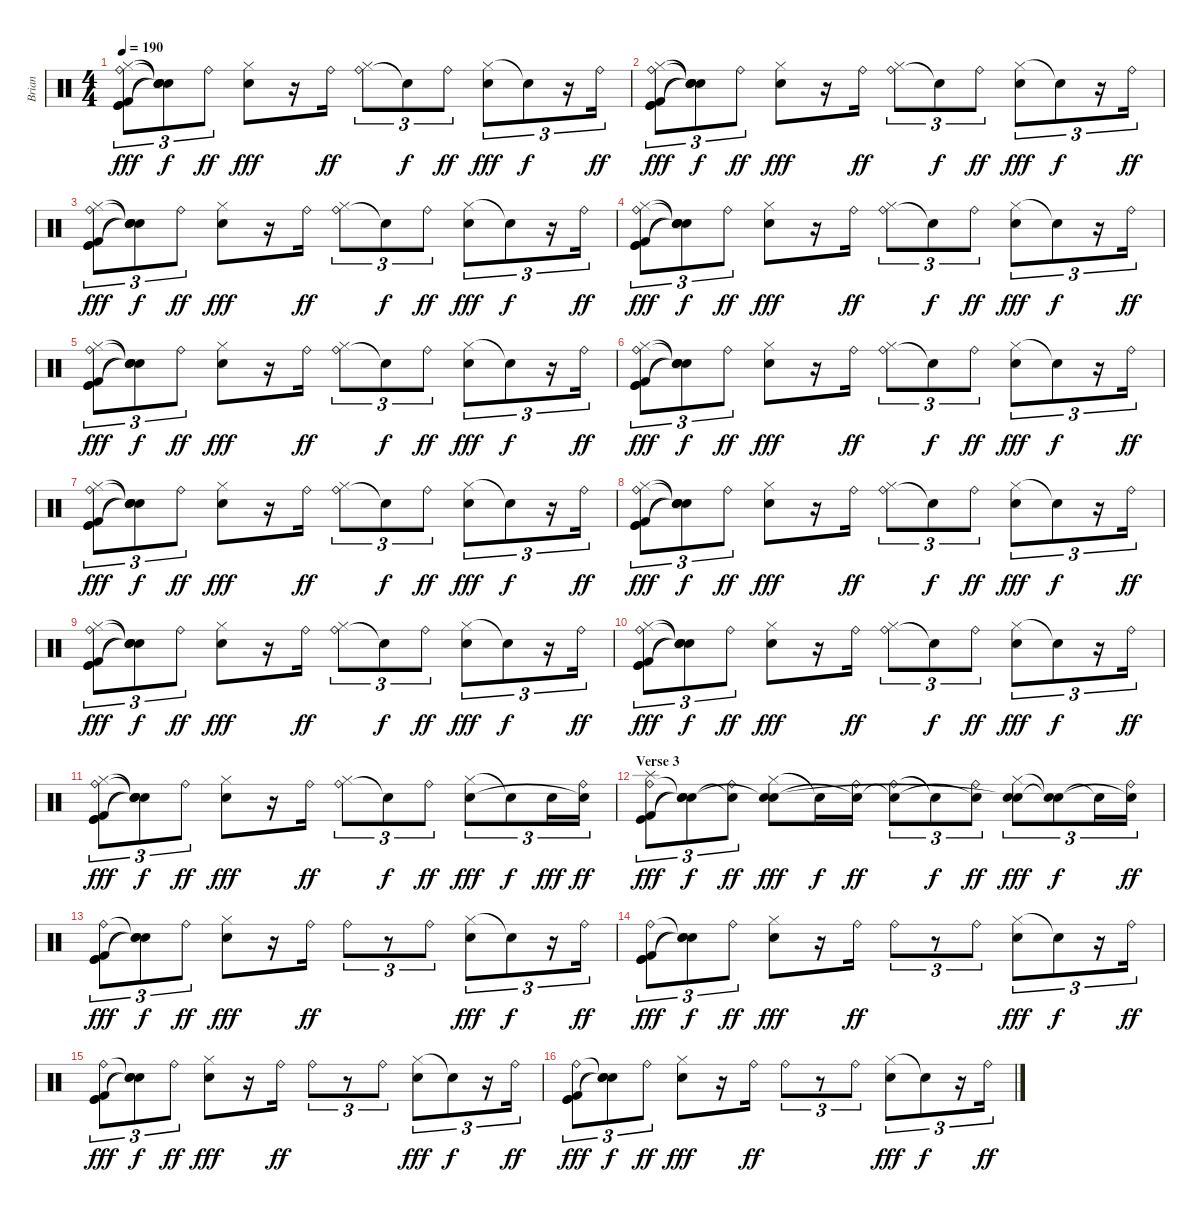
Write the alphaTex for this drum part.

\track ("Brian" "Brian") {instrument percussion}
\staff {score}
\articulation defaults
\ts (4 4)
\tempo 190
\clef neutral
\ks c
("Ride (bell)" "Hi-Hat (closed)" "Kick (hit)" "Kick (hit) 2" "Kick (hit)").8{tu (3 2) dy fff} ("Snare (hit)"{t} "Snare (hit)"{t} "Snare (hit)"{t} "Snare (hit)"{t}).8{tu (3 2) dy f} "Ride (bell)".8{tu (3 2) dy ff} ("Hi-Hat (closed)" "Electric Snare (hit)").8{dy fff} r.16 "Ride (bell)".16{dy ff} ("Ride (bell)" "Hi-Hat (closed)").8{tu (3 2)} "Snare (hit)"{t}.8{tu (3 2) dy f} "Ride (bell)".8{tu (3 2) dy ff} ("Hi-Hat (closed)" "Electric Snare (hit)").8{tu (3 2) dy fff} "Snare (hit)"{t}.8{tu (3 2) dy f} r.16{tu (3 2)} "Ride (bell)".16{tu (3 2) dy ff} |
("Ride (bell)" "Hi-Hat (closed)" "Kick (hit)" "Kick (hit) 2" "Kick (hit)").8{tu (3 2) dy fff} ("Snare (hit)"{t} "Snare (hit)"{t} "Snare (hit)"{t} "Snare (hit)"{t}).8{tu (3 2) dy f} "Ride (bell)".8{tu (3 2) dy ff} ("Hi-Hat (closed)" "Electric Snare (hit)").8{dy fff} r.16 "Ride (bell)".16{dy ff} ("Ride (bell)" "Hi-Hat (closed)").8{tu (3 2)} "Snare (hit)"{t}.8{tu (3 2) dy f} "Ride (bell)".8{tu (3 2) dy ff} ("Hi-Hat (closed)" "Electric Snare (hit)").8{tu (3 2) dy fff} "Snare (hit)"{t}.8{tu (3 2) dy f} r.16{tu (3 2)} "Ride (bell)".16{tu (3 2) dy ff} |
("Ride (bell)" "Hi-Hat (closed)" "Kick (hit)" "Kick (hit) 2" "Kick (hit)").8{tu (3 2) dy fff} ("Snare (hit)"{t} "Snare (hit)"{t} "Snare (hit)"{t} "Snare (hit)"{t}).8{tu (3 2) dy f} "Ride (bell)".8{tu (3 2) dy ff} ("Hi-Hat (closed)" "Electric Snare (hit)").8{dy fff} r.16 "Ride (bell)".16{dy ff} ("Ride (bell)" "Hi-Hat (closed)").8{tu (3 2)} "Snare (hit)"{t}.8{tu (3 2) dy f} "Ride (bell)".8{tu (3 2) dy ff} ("Hi-Hat (closed)" "Electric Snare (hit)").8{tu (3 2) dy fff} "Snare (hit)"{t}.8{tu (3 2) dy f} r.16{tu (3 2)} "Ride (bell)".16{tu (3 2) dy ff} |
("Ride (bell)" "Hi-Hat (closed)" "Kick (hit)" "Kick (hit) 2" "Kick (hit)").8{tu (3 2) dy fff} ("Snare (hit)"{t} "Snare (hit)"{t} "Snare (hit)"{t} "Snare (hit)"{t}).8{tu (3 2) dy f} "Ride (bell)".8{tu (3 2) dy ff} ("Hi-Hat (closed)" "Electric Snare (hit)").8{dy fff} r.16 "Ride (bell)".16{dy ff} ("Ride (bell)" "Hi-Hat (closed)").8{tu (3 2)} "Snare (hit)"{t}.8{tu (3 2) dy f} "Ride (bell)".8{tu (3 2) dy ff} ("Hi-Hat (closed)" "Electric Snare (hit)").8{tu (3 2) dy fff} "Snare (hit)"{t}.8{tu (3 2) dy f} r.16{tu (3 2)} "Ride (bell)".16{tu (3 2) dy ff} |
("Ride (bell)" "Hi-Hat (closed)" "Kick (hit)" "Kick (hit) 2" "Kick (hit)").8{tu (3 2) dy fff} ("Snare (hit)"{t} "Snare (hit)"{t} "Snare (hit)"{t} "Snare (hit)"{t}).8{tu (3 2) dy f} "Ride (bell)".8{tu (3 2) dy ff} ("Hi-Hat (closed)" "Electric Snare (hit)").8{dy fff} r.16 "Ride (bell)".16{dy ff} ("Ride (bell)" "Hi-Hat (closed)").8{tu (3 2)} "Snare (hit)"{t}.8{tu (3 2) dy f} "Ride (bell)".8{tu (3 2) dy ff} ("Hi-Hat (closed)" "Electric Snare (hit)").8{tu (3 2) dy fff} "Snare (hit)"{t}.8{tu (3 2) dy f} r.16{tu (3 2)} "Ride (bell)".16{tu (3 2) dy ff} |
("Ride (bell)" "Hi-Hat (closed)" "Kick (hit)" "Kick (hit) 2" "Kick (hit)").8{tu (3 2) dy fff} ("Snare (hit)"{t} "Snare (hit)"{t} "Snare (hit)"{t} "Snare (hit)"{t}).8{tu (3 2) dy f} "Ride (bell)".8{tu (3 2) dy ff} ("Hi-Hat (closed)" "Electric Snare (hit)").8{dy fff} r.16 "Ride (bell)".16{dy ff} ("Ride (bell)" "Hi-Hat (closed)").8{tu (3 2)} "Snare (hit)"{t}.8{tu (3 2) dy f} "Ride (bell)".8{tu (3 2) dy ff} ("Hi-Hat (closed)" "Electric Snare (hit)").8{tu (3 2) dy fff} "Snare (hit)"{t}.8{tu (3 2) dy f} r.16{tu (3 2)} "Ride (bell)".16{tu (3 2) dy ff} |
("Ride (bell)" "Hi-Hat (closed)" "Kick (hit)" "Kick (hit) 2" "Kick (hit)").8{tu (3 2) dy fff} ("Snare (hit)"{t} "Snare (hit)"{t} "Snare (hit)"{t} "Snare (hit)"{t}).8{tu (3 2) dy f} "Ride (bell)".8{tu (3 2) dy ff} ("Hi-Hat (closed)" "Electric Snare (hit)").8{dy fff} r.16 "Ride (bell)".16{dy ff} ("Ride (bell)" "Hi-Hat (closed)").8{tu (3 2)} "Snare (hit)"{t}.8{tu (3 2) dy f} "Ride (bell)".8{tu (3 2) dy ff} ("Hi-Hat (closed)" "Electric Snare (hit)").8{tu (3 2) dy fff} "Snare (hit)"{t}.8{tu (3 2) dy f} r.16{tu (3 2)} "Ride (bell)".16{tu (3 2) dy ff} |
("Ride (bell)" "Hi-Hat (closed)" "Kick (hit)" "Kick (hit) 2" "Kick (hit)").8{tu (3 2) dy fff} ("Snare (hit)"{t} "Snare (hit)"{t} "Snare (hit)"{t} "Snare (hit)"{t}).8{tu (3 2) dy f} "Ride (bell)".8{tu (3 2) dy ff} ("Hi-Hat (closed)" "Electric Snare (hit)").8{dy fff} r.16 "Ride (bell)".16{dy ff} ("Ride (bell)" "Hi-Hat (closed)").8{tu (3 2)} "Snare (hit)"{t}.8{tu (3 2) dy f} "Ride (bell)".8{tu (3 2) dy ff} ("Hi-Hat (closed)" "Electric Snare (hit)").8{tu (3 2) dy fff} "Snare (hit)"{t}.8{tu (3 2) dy f} r.16{tu (3 2)} "Ride (bell)".16{tu (3 2) dy ff} |
("Ride (bell)" "Hi-Hat (closed)" "Kick (hit)" "Kick (hit) 2" "Kick (hit)").8{tu (3 2) dy fff} ("Snare (hit)"{t} "Snare (hit)"{t} "Snare (hit)"{t} "Snare (hit)"{t}).8{tu (3 2) dy f} "Ride (bell)".8{tu (3 2) dy ff} ("Hi-Hat (closed)" "Electric Snare (hit)").8{dy fff} r.16 "Ride (bell)".16{dy ff} ("Ride (bell)" "Hi-Hat (closed)").8{tu (3 2)} "Snare (hit)"{t}.8{tu (3 2) dy f} "Ride (bell)".8{tu (3 2) dy ff} ("Hi-Hat (closed)" "Electric Snare (hit)").8{tu (3 2) dy fff} "Snare (hit)"{t}.8{tu (3 2) dy f} r.16{tu (3 2)} "Ride (bell)".16{tu (3 2) dy ff} |
("Ride (bell)" "Hi-Hat (closed)" "Kick (hit)" "Kick (hit) 2" "Kick (hit)").8{tu (3 2) dy fff} ("Snare (hit)"{t} "Snare (hit)"{t} "Snare (hit)"{t} "Snare (hit)"{t}).8{tu (3 2) dy f} "Ride (bell)".8{tu (3 2) dy ff} ("Hi-Hat (closed)" "Electric Snare (hit)").8{dy fff} r.16 "Ride (bell)".16{dy ff} ("Ride (bell)" "Hi-Hat (closed)").8{tu (3 2)} "Snare (hit)"{t}.8{tu (3 2) dy f} "Ride (bell)".8{tu (3 2) dy ff} ("Hi-Hat (closed)" "Electric Snare (hit)").8{tu (3 2) dy fff} "Snare (hit)"{t}.8{tu (3 2) dy f} r.16{tu (3 2)} "Ride (bell)".16{tu (3 2) dy ff} |
("Ride (bell)" "Hi-Hat (closed)" "Kick (hit)" "Kick (hit) 2" "Kick (hit)").8{tu (3 2) dy fff} ("Snare (hit)"{t} "Snare (hit)"{t} "Snare (hit)"{t} "Snare (hit)"{t}).8{tu (3 2) dy f} "Ride (bell)".8{tu (3 2) dy ff} ("Hi-Hat (closed)" "Electric Snare (hit)").8{dy fff} r.16 "Ride (bell)".16{dy ff} ("Ride (bell)" "Hi-Hat (closed)").8{tu (3 2)} "Snare (hit)"{t}.8{tu (3 2) dy f} "Ride (bell)".8{tu (3 2) dy ff} ("Hi-Hat (closed)" "Electric Snare (hit)").8{tu (3 2) dy fff} "Snare (hit)"{t}.8{tu (3 2) dy f} "Electric Snare (hit)".16{tu (3 2) dy fff} ("Ride (bell)" "Snare (hit)"{t}).16{tu (3 2) dy ff} |
\section ("" "Verse 3")
("Ride (bell)" "Kick (hit)" "Kick (hit) 2" "Splash (hit)").8{tu (3 2) dy fff} ("Snare (hit)"{t} "Snare (hit)"{t} "Snare (hit)"{t}).8{tu (3 2) dy f} ("Ride (bell)" "Snare (hit)"{t}).8{tu (3 2) dy ff} ("Hi-Hat (closed)" "Electric Snare (hit)" "Snare (hit)"{t}).8{dy fff} "Snare (hit)"{t}.16{dy f} ("Ride (bell)" "Snare (hit)"{t}).16{dy ff} ("Ride (bell)" "Snare (hit)"{t}).8{tu (3 2)} "Snare (hit)"{t}.8{tu (3 2) dy f} ("Ride (bell)" "Snare (hit)"{t}).8{tu (3 2) dy ff} ("Hi-Hat (closed)" "Electric Snare (hit)" "Snare (hit)"{t}).8{tu (3 2) dy fff} ("Snare (hit)"{t} "Snare (hit)"{t}).8{tu (3 2) dy f} "Snare (hit)"{t}.16{tu (3 2)} ("Ride (bell)" "Snare (hit)"{t}).16{tu (3 2) dy ff} |
("Ride (bell)" "Kick (hit)" "Kick (hit) 2" "Kick (hit)").8{tu (3 2) dy fff} ("Snare (hit)"{t} "Snare (hit)"{t} "Snare (hit)"{t}).8{tu (3 2) dy f} "Ride (bell)".8{tu (3 2) dy ff} ("Hi-Hat (closed)" "Electric Snare (hit)").8{dy fff} r.16 "Ride (bell)".16{dy ff} "Ride (bell)".8{tu (3 2)} r.8{tu (3 2)} "Ride (bell)".8{tu (3 2)} ("Hi-Hat (closed)" "Electric Snare (hit)").8{tu (3 2) dy fff} "Snare (hit)"{t}.8{tu (3 2) dy f} r.16{tu (3 2)} "Ride (bell)".16{tu (3 2) dy ff} |
("Ride (bell)" "Kick (hit)" "Kick (hit) 2" "Kick (hit)").8{tu (3 2) dy fff} ("Snare (hit)"{t} "Snare (hit)"{t} "Snare (hit)"{t}).8{tu (3 2) dy f} "Ride (bell)".8{tu (3 2) dy ff} ("Hi-Hat (closed)" "Electric Snare (hit)").8{dy fff} r.16 "Ride (bell)".16{dy ff} "Ride (bell)".8{tu (3 2)} r.8{tu (3 2)} "Ride (bell)".8{tu (3 2)} ("Hi-Hat (closed)" "Electric Snare (hit)").8{tu (3 2) dy fff} "Snare (hit)"{t}.8{tu (3 2) dy f} r.16{tu (3 2)} "Ride (bell)".16{tu (3 2) dy ff} |
("Ride (bell)" "Kick (hit)" "Kick (hit) 2" "Kick (hit)").8{tu (3 2) dy fff} ("Snare (hit)"{t} "Snare (hit)"{t} "Snare (hit)"{t}).8{tu (3 2) dy f} "Ride (bell)".8{tu (3 2) dy ff} ("Hi-Hat (closed)" "Electric Snare (hit)").8{dy fff} r.16 "Ride (bell)".16{dy ff} "Ride (bell)".8{tu (3 2)} r.8{tu (3 2)} "Ride (bell)".8{tu (3 2)} ("Hi-Hat (closed)" "Electric Snare (hit)").8{tu (3 2) dy fff} "Snare (hit)"{t}.8{tu (3 2) dy f} r.16{tu (3 2)} "Ride (bell)".16{tu (3 2) dy ff} |
("Ride (bell)" "Kick (hit)" "Kick (hit) 2" "Kick (hit)").8{tu (3 2) dy fff} ("Snare (hit)"{t} "Snare (hit)"{t} "Snare (hit)"{t}).8{tu (3 2) dy f} "Ride (bell)".8{tu (3 2) dy ff} ("Hi-Hat (closed)" "Electric Snare (hit)").8{dy fff} r.16 "Ride (bell)".16{dy ff} "Ride (bell)".8{tu (3 2)} r.8{tu (3 2)} "Ride (bell)".8{tu (3 2)} ("Hi-Hat (closed)" "Electric Snare (hit)").8{tu (3 2) dy fff} "Snare (hit)"{t}.8{tu (3 2) dy f} r.16{tu (3 2)} "Ride (bell)".16{tu (3 2) dy ff}
